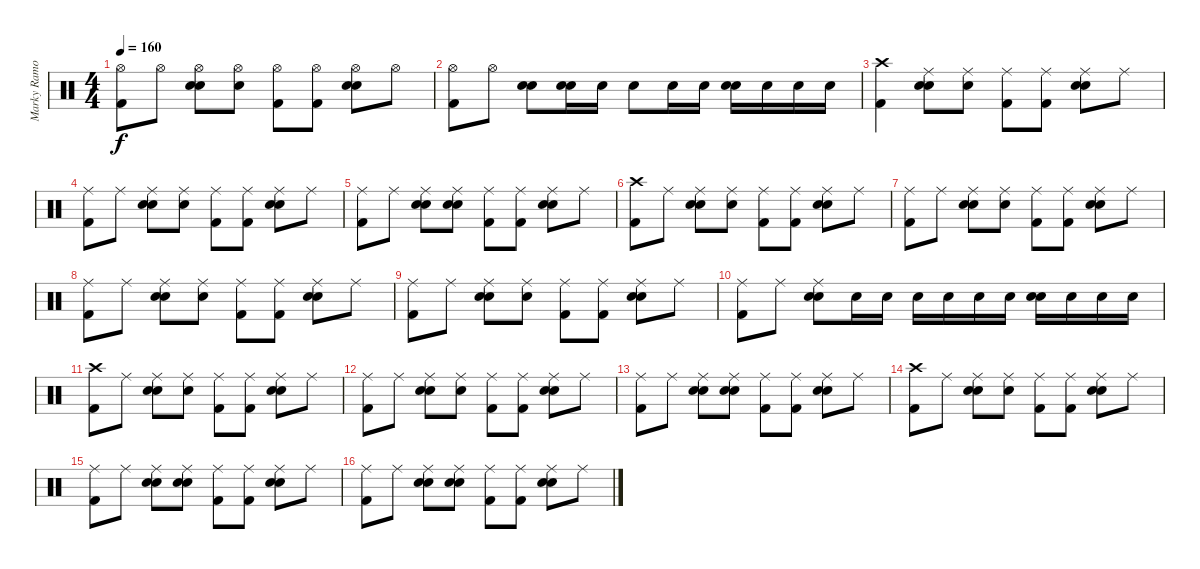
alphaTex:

\track ("Marky Ramone" "Marky Ramo") {instrument percussion}
\staff {score}
\articulation defaults
\ts (4 4)
\tempo 160
\clef neutral
\ks c
("Kick (hit) 2" "Hi-Hat (open)").8{dy f} "Hi-Hat (open)".8 ("Hand Clap (hit)" "Electric Snare (hit)" "Hi-Hat (open)").8 ("Hand Clap (hit)" "Hi-Hat (open)").8 ("Kick (hit) 2" "Hi-Hat (open)").8 ("Kick (hit) 2" "Hi-Hat (open)").8 ("Hand Clap (hit)" "Electric Snare (hit)" "Hi-Hat (open)").8 "Hi-Hat (open)".8 |
("Hi-Hat (open)" "Kick (hit) 2").8 "Hi-Hat (open)".8 ("Hand Clap (hit)" "Electric Snare (hit)").8 ("Hand Clap (hit)" "Electric Snare (hit)").16 "Electric Snare (hit)".16 "Electric Snare (hit)".8 "Electric Snare (hit)".16 "Electric Snare (hit)".16 ("Hand Clap (hit)" "Electric Snare (hit)").16 "Electric Snare (hit)".16 "Electric Snare (hit)".16 "Electric Snare (hit)".16 |
("Kick (hit) 2" "Crash high (hit)").4 ("Hand Clap (hit)" "Electric Snare (hit)" "Ride (middle)").8 ("Hand Clap (hit)" "Ride (middle)").8 ("Kick (hit) 2" "Ride (middle)").8 ("Kick (hit) 2" "Ride (middle)").8 ("Hand Clap (hit)" "Electric Snare (hit)" "Ride (middle)").8 "Ride (middle)".8 |
("Kick (hit) 2" "Ride (middle)").8 "Ride (middle)".8 ("Hand Clap (hit)" "Electric Snare (hit)" "Ride (middle)").8 ("Hand Clap (hit)" "Ride (middle)").8 ("Kick (hit) 2" "Ride (middle)").8 ("Kick (hit) 2" "Ride (middle)").8 ("Hand Clap (hit)" "Electric Snare (hit)" "Ride (middle)").8 "Ride (middle)".8 |
("Kick (hit) 2" "Ride (middle)").8 "Ride (middle)".8 ("Hand Clap (hit)" "Electric Snare (hit)" "Ride (middle)").8 ("Hand Clap (hit)" "Electric Snare (hit)" "Ride (middle)").8 ("Kick (hit) 2" "Ride (middle)").8 ("Kick (hit) 2" "Ride (middle)").8 ("Hand Clap (hit)" "Electric Snare (hit)" "Ride (middle)").8 "Ride (middle)".8 |
("Kick (hit) 2" "Crash high (hit)").8 "Ride (middle)".8 ("Hand Clap (hit)" "Electric Snare (hit)" "Ride (middle)").8 ("Hand Clap (hit)" "Ride (middle)").8 ("Kick (hit) 2" "Ride (middle)").8 ("Kick (hit) 2" "Ride (middle)").8 ("Hand Clap (hit)" "Electric Snare (hit)" "Ride (middle)").8 "Ride (middle)".8 |
("Kick (hit) 2" "Ride (middle)").8 "Ride (middle)".8 ("Hand Clap (hit)" "Electric Snare (hit)" "Ride (middle)").8 ("Hand Clap (hit)" "Ride (middle)").8 ("Kick (hit) 2" "Ride (middle)").8 ("Kick (hit) 2" "Ride (middle)").8 ("Hand Clap (hit)" "Electric Snare (hit)" "Ride (middle)").8 "Ride (middle)".8 |
("Kick (hit) 2" "Ride (middle)").8 "Ride (middle)".8 ("Hand Clap (hit)" "Electric Snare (hit)" "Ride (middle)").8 ("Hand Clap (hit)" "Ride (middle)").8 ("Kick (hit) 2" "Ride (middle)").8 ("Kick (hit) 2" "Ride (middle)").8 ("Hand Clap (hit)" "Electric Snare (hit)" "Ride (middle)").8 "Ride (middle)".8 |
("Kick (hit) 2" "Ride (middle)").8 "Ride (middle)".8 ("Hand Clap (hit)" "Electric Snare (hit)" "Ride (middle)").8 ("Hand Clap (hit)" "Ride (middle)").8 ("Kick (hit) 2" "Ride (middle)").8 ("Kick (hit) 2" "Ride (middle)").8 ("Hand Clap (hit)" "Electric Snare (hit)" "Ride (middle)").8 "Ride (middle)".8 |
("Kick (hit) 2" "Ride (middle)").8 "Ride (middle)".8 ("Hand Clap (hit)" "Electric Snare (hit)" "Ride (middle)").8 "Hand Clap (hit)".16 "Electric Snare (hit)".16 "Electric Snare (hit)".16 "Electric Snare (hit)".16 "Electric Snare (hit)".16 "Electric Snare (hit)".16 ("Hand Clap (hit)" "Electric Snare (hit)").16 "Electric Snare (hit)".16 "Electric Snare (hit)".16 "Electric Snare (hit)".16 |
("Kick (hit) 2" "Crash high (hit)").8 "Ride (middle)".8 ("Hand Clap (hit)" "Electric Snare (hit)" "Ride (middle)").8 ("Hand Clap (hit)" "Ride (middle)").8 ("Kick (hit) 2" "Ride (middle)").8 ("Kick (hit) 2" "Ride (middle)").8 ("Hand Clap (hit)" "Electric Snare (hit)" "Ride (middle)").8 "Ride (middle)".8 |
("Kick (hit) 2" "Ride (middle)").8 "Ride (middle)".8 ("Hand Clap (hit)" "Electric Snare (hit)" "Ride (middle)").8 ("Hand Clap (hit)" "Ride (middle)").8 ("Kick (hit) 2" "Ride (middle)").8 ("Kick (hit) 2" "Ride (middle)").8 ("Hand Clap (hit)" "Electric Snare (hit)" "Ride (middle)").8 "Ride (middle)".8 |
("Kick (hit) 2" "Ride (middle)").8 "Ride (middle)".8 ("Hand Clap (hit)" "Electric Snare (hit)" "Ride (middle)").8 ("Hand Clap (hit)" "Electric Snare (hit)" "Ride (middle)").8 ("Kick (hit) 2" "Ride (middle)").8 ("Kick (hit) 2" "Ride (middle)").8 ("Hand Clap (hit)" "Electric Snare (hit)" "Ride (middle)").8 "Ride (middle)".8 |
("Kick (hit) 2" "Crash high (hit)").8 "Ride (middle)".8 ("Hand Clap (hit)" "Electric Snare (hit)" "Ride (middle)").8 ("Hand Clap (hit)" "Ride (middle)").8 ("Kick (hit) 2" "Ride (middle)").8 ("Kick (hit) 2" "Ride (middle)").8 ("Hand Clap (hit)" "Electric Snare (hit)" "Ride (middle)").8 "Ride (middle)".8 |
("Kick (hit) 2" "Ride (middle)").8 "Ride (middle)".8 ("Hand Clap (hit)" "Electric Snare (hit)" "Ride (middle)").8 ("Hand Clap (hit)" "Electric Snare (hit)" "Ride (middle)").8 ("Kick (hit) 2" "Ride (middle)").8 ("Kick (hit) 2" "Ride (middle)").8 ("Hand Clap (hit)" "Electric Snare (hit)" "Ride (middle)").8 "Ride (middle)".8 |
("Kick (hit) 2" "Ride (middle)").8 "Ride (middle)".8 ("Hand Clap (hit)" "Electric Snare (hit)" "Ride (middle)").8 ("Hand Clap (hit)" "Electric Snare (hit)" "Ride (middle)").8 ("Kick (hit) 2" "Ride (middle)").8 ("Kick (hit) 2" "Ride (middle)").8 ("Hand Clap (hit)" "Electric Snare (hit)" "Ride (middle)").8 "Ride (middle)".8
